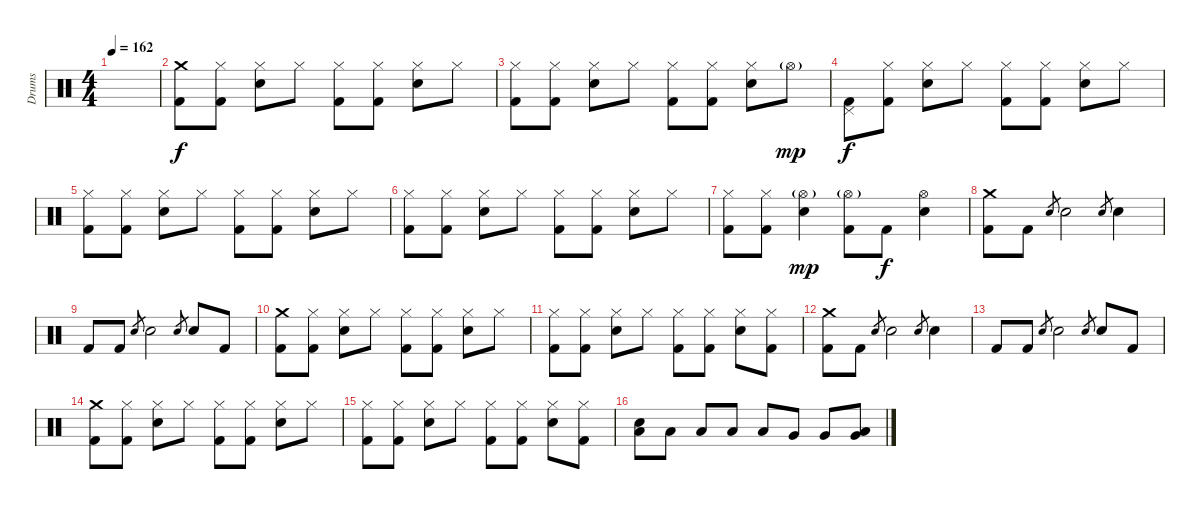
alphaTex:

\track ("Drums" "Drums") {instrument percussion}
\staff {score}
\articulation defaults
\ts (4 4)
\tempo 162
\clef neutral
\ks c
|
("Crash medium (hit)" "Kick (hit) 2").8 ("Hi-Hat (closed)" "Kick (hit) 2").8 ("Hi-Hat (closed)" "Electric Snare (hit)").8 "Hi-Hat (closed)".8 ("Hi-Hat (closed)" "Kick (hit) 2").8 ("Hi-Hat (closed)" "Kick (hit) 2").8 ("Hi-Hat (closed)" "Electric Snare (hit)").8 "Hi-Hat (closed)".8 |
("Hi-Hat (closed)" "Kick (hit) 2").8 ("Hi-Hat (closed)" "Kick (hit) 2").8 ("Hi-Hat (closed)" "Electric Snare (hit)").8 "Hi-Hat (closed)".8 ("Hi-Hat (closed)" "Kick (hit) 2").8 ("Hi-Hat (closed)" "Kick (hit) 2").8 ("Hi-Hat (closed)" "Electric Snare (hit)").8 "Hi-Hat (open)"{g}.8{dy mp} |
("Pedal Hi-Hat (hit)" "Kick (hit) 2").8{dy f} ("Hi-Hat (closed)" "Kick (hit) 2").8 ("Hi-Hat (closed)" "Electric Snare (hit)").8 "Hi-Hat (closed)".8 ("Hi-Hat (closed)" "Kick (hit) 2").8 ("Hi-Hat (closed)" "Kick (hit) 2").8 ("Hi-Hat (closed)" "Electric Snare (hit)").8 "Hi-Hat (closed)".8 |
("Hi-Hat (closed)" "Kick (hit) 2").8 ("Hi-Hat (closed)" "Kick (hit) 2").8 ("Hi-Hat (closed)" "Electric Snare (hit)").8 "Hi-Hat (closed)".8 ("Hi-Hat (closed)" "Kick (hit) 2").8 ("Hi-Hat (closed)" "Kick (hit) 2").8 ("Hi-Hat (closed)" "Electric Snare (hit)").8 "Hi-Hat (closed)".8 |
("Hi-Hat (closed)" "Kick (hit) 2").8 ("Hi-Hat (closed)" "Kick (hit) 2").8 ("Hi-Hat (closed)" "Electric Snare (hit)").8 "Hi-Hat (closed)".8 ("Hi-Hat (closed)" "Kick (hit) 2").8 ("Hi-Hat (closed)" "Kick (hit) 2").8 ("Hi-Hat (closed)" "Electric Snare (hit)").8 "Hi-Hat (closed)".8 |
("Hi-Hat (closed)" "Kick (hit) 2").8 ("Hi-Hat (closed)" "Kick (hit) 2").8 ("Hi-Hat (open)"{g} "Electric Snare (hit)").4{dy mp} ("Hi-Hat (open)"{g} "Kick (hit) 2").8 "Kick (hit) 2".8{dy f} ("Hi-Hat (open)" "Electric Snare (hit)").4 |
("Crash medium (hit)" "Kick (hit) 2").8 "Kick (hit) 2".8 "Electric Snare (hit)".8{gr} "Electric Snare (hit)".2 "Electric Snare (hit)".8{gr} "Electric Snare (hit)".4 |
"Kick (hit) 2".8 "Kick (hit) 2".8 "Electric Snare (hit)".8{gr} "Electric Snare (hit)".2 "Electric Snare (hit)".8{gr} "Electric Snare (hit)".8 "Kick (hit) 2".8 |
("Crash medium (hit)" "Kick (hit) 2").8 ("Hi-Hat (closed)" "Kick (hit) 2").8 ("Hi-Hat (closed)" "Electric Snare (hit)").8 "Hi-Hat (closed)".8 ("Hi-Hat (closed)" "Kick (hit) 2").8 ("Hi-Hat (closed)" "Kick (hit) 2").8 ("Hi-Hat (closed)" "Electric Snare (hit)").8 "Hi-Hat (closed)".8 |
("Hi-Hat (closed)" "Kick (hit) 2").8 ("Hi-Hat (closed)" "Kick (hit) 2").8 ("Hi-Hat (closed)" "Electric Snare (hit)").8 "Hi-Hat (closed)".8 ("Hi-Hat (closed)" "Kick (hit) 2").8 ("Hi-Hat (closed)" "Kick (hit) 2").8 ("Hi-Hat (closed)" "Electric Snare (hit)").8 ("Hi-Hat (closed)" "Kick (hit) 2").8 |
("Crash medium (hit)" "Kick (hit) 2").8 "Kick (hit) 2".8 "Electric Snare (hit)".8{gr} "Electric Snare (hit)".2 "Electric Snare (hit)".8{gr} "Electric Snare (hit)".4 |
"Kick (hit) 2".8 "Kick (hit) 2".8 "Electric Snare (hit)".8{gr} "Electric Snare (hit)".2 "Electric Snare (hit)".8{gr} "Electric Snare (hit)".8 "Kick (hit) 2".8 |
("Crash medium (hit)" "Kick (hit) 2").8 ("Hi-Hat (closed)" "Kick (hit) 2").8 ("Hi-Hat (closed)" "Electric Snare (hit)").8 "Hi-Hat (closed)".8 ("Hi-Hat (closed)" "Kick (hit) 2").8 ("Hi-Hat (closed)" "Kick (hit) 2").8 ("Hi-Hat (closed)" "Electric Snare (hit)").8 "Hi-Hat (closed)".8 |
("Hi-Hat (closed)" "Kick (hit) 2").8 ("Hi-Hat (closed)" "Kick (hit) 2").8 ("Hi-Hat (closed)" "Electric Snare (hit)").8 "Hi-Hat (closed)".8 ("Hi-Hat (closed)" "Kick (hit) 2").8 ("Hi-Hat (closed)" "Kick (hit) 2").8 ("Hi-Hat (closed)" "Electric Snare (hit)").8 ("Hi-Hat (closed)" "Kick (hit) 2").8 |
("Electric Snare (hit)" "Low Floor Tom (hit)").8 "Low Floor Tom (hit)".8 "Low Floor Tom (hit)".8 "Low Floor Tom (hit)".8 "Low Floor Tom (hit)".8 "Very Low Tom (hit)".8 "Very Low Tom (hit)".8 ("Low Tom (hit)" "Very Low Tom (hit)").8
